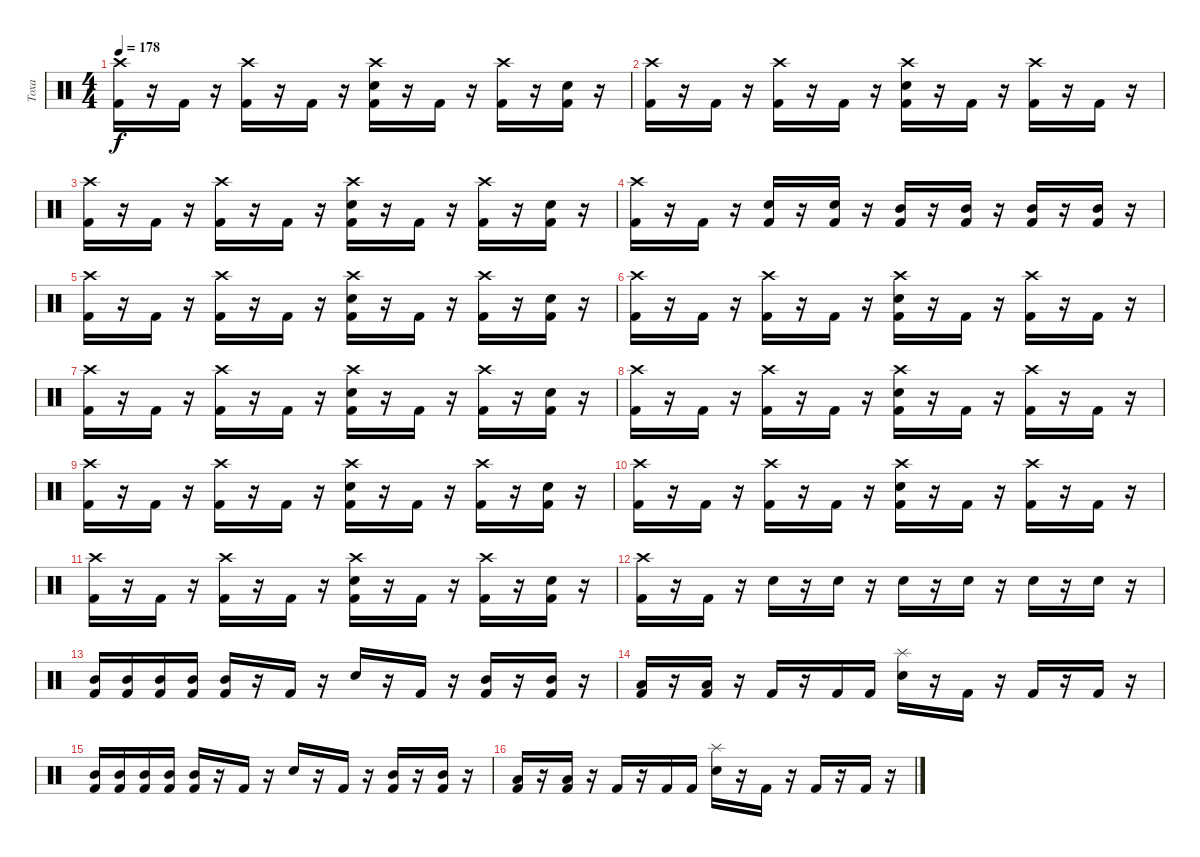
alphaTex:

\track ("Тоха" "Тоха") {instrument percussion}
\staff {score}
\articulation defaults
\ts (4 4)
\tempo 178
\clef neutral
\ks c
("Crash high (hit)" "Kick (hit) 2").16{dy f} r.16 "Kick (hit) 2".16 r.16 ("Crash high (hit)" "Kick (hit) 2").16 r.16 "Kick (hit) 2".16 r.16 ("Crash high (hit)" "Electric Snare (hit)" "Kick (hit) 2").16 r.16 "Kick (hit) 2".16 r.16 ("Crash high (hit)" "Kick (hit) 2").16 r.16 ("Electric Snare (hit)" "Kick (hit) 2").16 r.16 |
("Crash high (hit)" "Kick (hit) 2").16 r.16 "Kick (hit) 2".16 r.16 ("Crash high (hit)" "Kick (hit) 2").16 r.16 "Kick (hit) 2".16 r.16 ("Crash high (hit)" "Electric Snare (hit)" "Kick (hit) 2").16 r.16 "Kick (hit) 2".16 r.16 ("Crash high (hit)" "Kick (hit) 2").16 r.16 "Kick (hit) 2".16 r.16 |
("Crash high (hit)" "Kick (hit) 2").16 r.16 "Kick (hit) 2".16 r.16 ("Crash high (hit)" "Kick (hit) 2").16 r.16 "Kick (hit) 2".16 r.16 ("Crash high (hit)" "Electric Snare (hit)" "Kick (hit) 2").16 r.16 "Kick (hit) 2".16 r.16 ("Crash high (hit)" "Kick (hit) 2").16 r.16 ("Electric Snare (hit)" "Kick (hit) 2").16 r.16 |
("Crash high (hit)" "Kick (hit) 2").16 r.16 "Kick (hit) 2".16 r.16 ("Electric Snare (hit)" "Kick (hit) 2").16 r.16 ("Electric Snare (hit)" "Kick (hit) 2").16 r.16 ("Mid Tom (hit)" "Kick (hit) 2").16 r.16 ("Mid Tom (hit)" "Kick (hit) 2").16 r.16 ("Mid Tom (hit)" "Kick (hit) 2").16 r.16 ("Mid Tom (hit)" "Kick (hit) 2").16 r.16 |
("Crash high (hit)" "Kick (hit) 2").16 r.16 "Kick (hit) 2".16 r.16 ("Crash high (hit)" "Kick (hit) 2").16 r.16 "Kick (hit) 2".16 r.16 ("Crash high (hit)" "Electric Snare (hit)" "Kick (hit) 2").16 r.16 "Kick (hit) 2".16 r.16 ("Crash high (hit)" "Kick (hit) 2").16 r.16 ("Electric Snare (hit)" "Kick (hit) 2").16 r.16 |
("Crash high (hit)" "Kick (hit) 2").16 r.16 "Kick (hit) 2".16 r.16 ("Crash high (hit)" "Kick (hit) 2").16 r.16 "Kick (hit) 2".16 r.16 ("Crash high (hit)" "Electric Snare (hit)" "Kick (hit) 2").16 r.16 "Kick (hit) 2".16 r.16 ("Crash high (hit)" "Kick (hit) 2").16 r.16 "Kick (hit) 2".16 r.16 |
("Crash high (hit)" "Kick (hit) 2").16 r.16 "Kick (hit) 2".16 r.16 ("Crash high (hit)" "Kick (hit) 2").16 r.16 "Kick (hit) 2".16 r.16 ("Crash high (hit)" "Electric Snare (hit)" "Kick (hit) 2").16 r.16 "Kick (hit) 2".16 r.16 ("Crash high (hit)" "Kick (hit) 2").16 r.16 ("Electric Snare (hit)" "Kick (hit) 2").16 r.16 |
("Crash high (hit)" "Kick (hit) 2").16 r.16 "Kick (hit) 2".16 r.16 ("Crash high (hit)" "Kick (hit) 2").16 r.16 "Kick (hit) 2".16 r.16 ("Crash high (hit)" "Electric Snare (hit)" "Kick (hit) 2").16 r.16 "Kick (hit) 2".16 r.16 ("Crash high (hit)" "Kick (hit) 2").16 r.16 "Kick (hit) 2".16 r.16 |
("Crash high (hit)" "Kick (hit) 2").16 r.16 "Kick (hit) 2".16 r.16 ("Crash high (hit)" "Kick (hit) 2").16 r.16 "Kick (hit) 2".16 r.16 ("Crash high (hit)" "Electric Snare (hit)" "Kick (hit) 2").16 r.16 "Kick (hit) 2".16 r.16 ("Crash high (hit)" "Kick (hit) 2").16 r.16 ("Electric Snare (hit)" "Kick (hit) 2").16 r.16 |
("Crash high (hit)" "Kick (hit) 2").16 r.16 "Kick (hit) 2".16 r.16 ("Crash high (hit)" "Kick (hit) 2").16 r.16 "Kick (hit) 2".16 r.16 ("Crash high (hit)" "Electric Snare (hit)" "Kick (hit) 2").16 r.16 "Kick (hit) 2".16 r.16 ("Crash high (hit)" "Kick (hit) 2").16 r.16 "Kick (hit) 2".16 r.16 |
("Crash high (hit)" "Kick (hit) 2").16 r.16 "Kick (hit) 2".16 r.16 ("Crash high (hit)" "Kick (hit) 2").16 r.16 "Kick (hit) 2".16 r.16 ("Crash high (hit)" "Electric Snare (hit)" "Kick (hit) 2").16 r.16 "Kick (hit) 2".16 r.16 ("Crash high (hit)" "Kick (hit) 2").16 r.16 ("Electric Snare (hit)" "Kick (hit) 2").16 r.16 |
("Crash high (hit)" "Kick (hit) 2").16 r.16 "Kick (hit) 2".16 r.16 "Electric Snare (hit)".16 r.16 "Electric Snare (hit)".16 r.16 "Electric Snare (hit)".16 r.16 "Electric Snare (hit)".16 r.16 "Electric Snare (hit)".16 r.16 "Electric Snare (hit)".16 r.16 |
("Mid Tom (hit)" "Kick (hit) 2").16 ("Mid Tom (hit)" "Kick (hit) 2").16 ("Mid Tom (hit)" "Kick (hit) 2").16 ("Mid Tom (hit)" "Kick (hit) 2").16 ("Mid Tom (hit)" "Kick (hit) 2").16 r.16 "Kick (hit) 2".16 r.16 "Electric Snare (hit)".16 r.16 "Kick (hit) 2".16 r.16 ("Mid Tom (hit)" "Kick (hit) 2").16 r.16 ("Mid Tom (hit)" "Kick (hit) 2").16 r.16 |
("Low Tom (hit)" "Kick (hit) 2").16 r.16 ("Low Tom (hit)" "Kick (hit) 2").16 r.16 "Kick (hit) 2".16 r.16 "Kick (hit) 2".16 "Kick (hit) 2".16 ("Splash (hit)" "Electric Snare (hit)").16 r.16 "Kick (hit) 2".16 r.16 "Kick (hit) 2".16 r.16 "Kick (hit) 2".16 r.16 |
("Mid Tom (hit)" "Kick (hit) 2").16 ("Mid Tom (hit)" "Kick (hit) 2").16 ("Mid Tom (hit)" "Kick (hit) 2").16 ("Mid Tom (hit)" "Kick (hit) 2").16 ("Mid Tom (hit)" "Kick (hit) 2").16 r.16 "Kick (hit) 2".16 r.16 "Electric Snare (hit)".16 r.16 "Kick (hit) 2".16 r.16 ("Mid Tom (hit)" "Kick (hit) 2").16 r.16 ("Mid Tom (hit)" "Kick (hit) 2").16 r.16 |
("Low Tom (hit)" "Kick (hit) 2").16 r.16 ("Low Tom (hit)" "Kick (hit) 2").16 r.16 "Kick (hit) 2".16 r.16 "Kick (hit) 2".16 "Kick (hit) 2".16 ("Splash (hit)" "Electric Snare (hit)").16 r.16 "Kick (hit) 2".16 r.16 "Kick (hit) 2".16 r.16 "Kick (hit) 2".16 r.16
